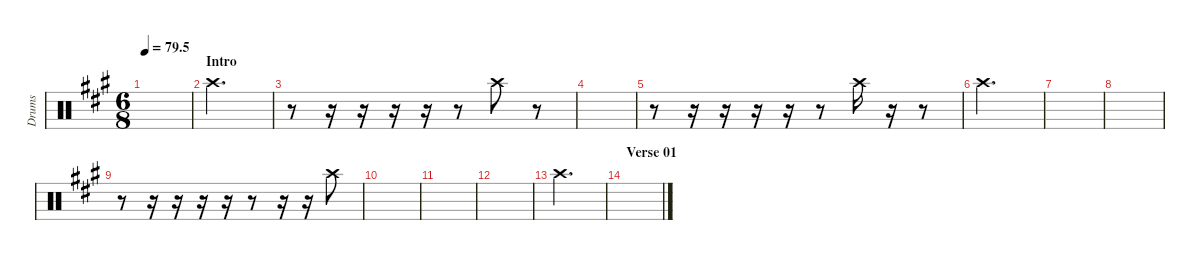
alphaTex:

\defaultSystemsLayout 4
\hideDynamics
\bracketExtendMode nobrackets
\otherSystemsTrackNameOrientation horizontal
\track ("Left crash" "Drums") {instrument percussion}
\staff {score}
\articulation defaults
\ts (6 8)
\tempo
79.5
\accidentals auto
\clef neutral
\ottava regular
\simile none
\scale
0.474178
\ks a
|
\section ("" "Intro")
\scale
0.262911 "Crash high (hit)"{acc forcenatural}.2{d} |
\scale
0.262911 r.8 r.16 r.16 r.16 r.16 r.8 "Crash high (hit)"{acc forcenatural}.8 r.8 |
\scale
0.333333 |
\scale
0.333333 r.8 r.16 r.16 r.16 r.16 r.8 "Crash high (hit)"{acc forcenatural}.16 r.16 r.8 |
\scale
0.333333 "Crash high (hit)"{acc forcenatural}.2{d} |
\scale
0.333333 |
\scale
0.333333 |
\scale
0.333333 r.8 r.16 r.16 r.16 r.16 r.8 r.16 r.16 "Crash high (hit)"{acc forcenatural}.8 |
\scale
0.333333 |
\scale
0.333333 |
\scale
0.333333 |
\scale
0.333333 "Crash high (hit)"{acc forcenatural}.2{d} |
\section ("" "Verse 01")
\scale
0.333333 |
\scale
0.333333 |
\scale
0.333333
